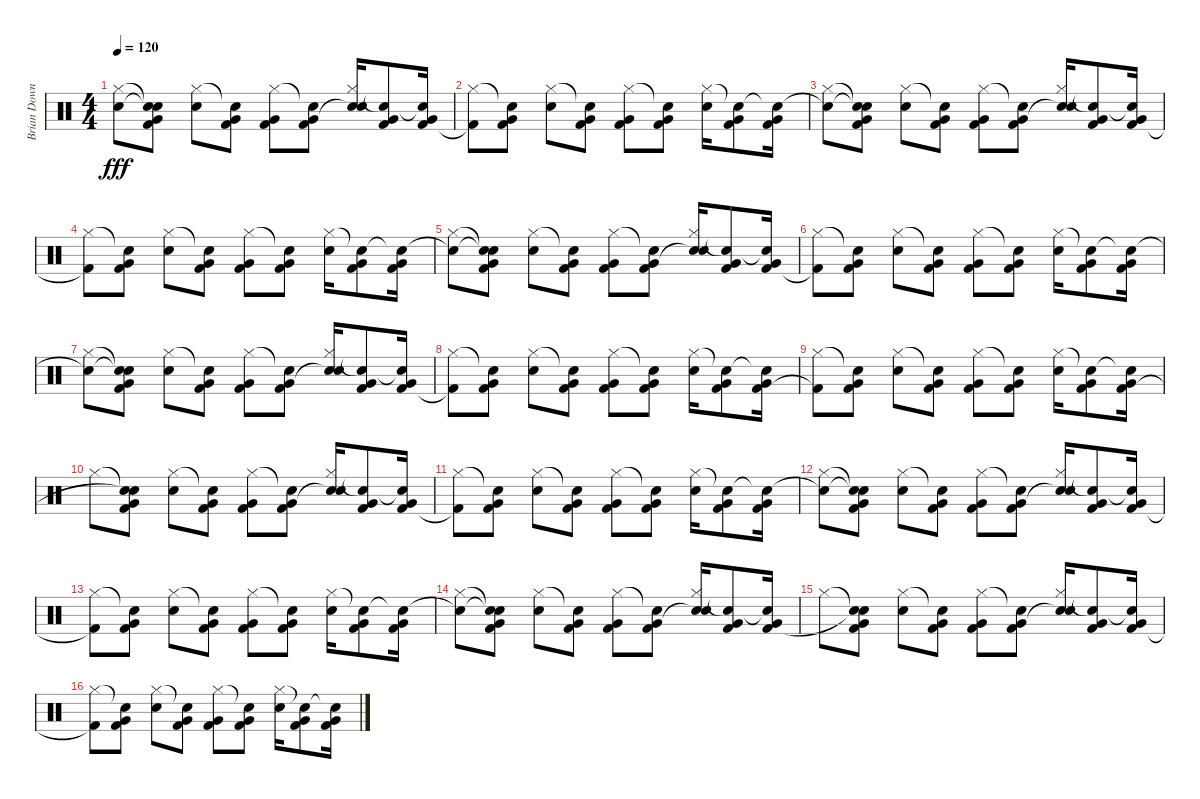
\track ("Brian Downey" "Brian Down") {instrument percussion}
\staff {score}
\articulation defaults
\ts (4 4)
\tempo 120
\clef neutral
\ks c
("Snare (hit)"{t} "Hi-Hat (closed)").8{dy fff} ("Snare (hit)"{t} "Snare (hit)"{t} "Kick (hit) 2" "Very Low Tom (hit)").8 ("Hi-Hat (closed)" "Electric Snare (hit)").8 ("Snare (hit)"{t} "Kick (hit) 2" "Very Low Tom (hit)").8 ("Hi-Hat (closed)" "Kick (hit) 2" "Very Low Tom (hit)").8 ("Snare (hit)"{t} "Kick (hit) 2" "Very Low Tom (hit)").8 ("Hi-Hat (closed)" "Electric Snare (hit)" "Snare (hit)"{t}).16 ("Snare (hit)"{t} "Kick (hit) 2" "Very Low Tom (hit)").8 ("Snare (hit)"{t} "Kick (hit) 2" "Very Low Tom (hit)").16 |
("Hi-Hat (closed)" "Kick (hit) 2"{t}).8 ("Snare (hit)"{t} "Kick (hit) 2" "Very Low Tom (hit)").8 ("Hi-Hat (closed)" "Electric Snare (hit)").8 ("Snare (hit)"{t} "Kick (hit) 2" "Very Low Tom (hit)").8 ("Hi-Hat (closed)" "Kick (hit) 2" "Very Low Tom (hit)").8 ("Snare (hit)"{t} "Kick (hit) 2" "Very Low Tom (hit)").8 ("Hi-Hat (closed)" "Electric Snare (hit)").16 ("Snare (hit)"{t} "Kick (hit) 2" "Very Low Tom (hit)").8 ("Snare (hit)"{t} "Kick (hit) 2" "Very Low Tom (hit)").16 |
("Snare (hit)"{t} "Hi-Hat (closed)").8 ("Snare (hit)"{t} "Snare (hit)"{t} "Kick (hit) 2" "Very Low Tom (hit)").8 ("Hi-Hat (closed)" "Electric Snare (hit)").8 ("Snare (hit)"{t} "Kick (hit) 2" "Very Low Tom (hit)").8 ("Hi-Hat (closed)" "Kick (hit) 2" "Very Low Tom (hit)").8 ("Snare (hit)"{t} "Kick (hit) 2" "Very Low Tom (hit)").8 ("Hi-Hat (closed)" "Electric Snare (hit)" "Snare (hit)"{t}).16 ("Snare (hit)"{t} "Kick (hit) 2" "Very Low Tom (hit)").8 ("Snare (hit)"{t} "Kick (hit) 2" "Very Low Tom (hit)").16 |
("Hi-Hat (closed)" "Kick (hit) 2"{t}).8 ("Snare (hit)"{t} "Kick (hit) 2" "Very Low Tom (hit)").8 ("Hi-Hat (closed)" "Electric Snare (hit)").8 ("Snare (hit)"{t} "Kick (hit) 2" "Very Low Tom (hit)").8 ("Hi-Hat (closed)" "Kick (hit) 2" "Very Low Tom (hit)").8 ("Snare (hit)"{t} "Kick (hit) 2" "Very Low Tom (hit)").8 ("Hi-Hat (closed)" "Electric Snare (hit)").16 ("Snare (hit)"{t} "Kick (hit) 2" "Very Low Tom (hit)").8 ("Snare (hit)"{t} "Kick (hit) 2" "Very Low Tom (hit)").16 |
("Snare (hit)"{t} "Hi-Hat (closed)").8 ("Snare (hit)"{t} "Snare (hit)"{t} "Kick (hit) 2" "Very Low Tom (hit)").8 ("Hi-Hat (closed)" "Electric Snare (hit)").8 ("Snare (hit)"{t} "Kick (hit) 2" "Very Low Tom (hit)").8 ("Hi-Hat (closed)" "Kick (hit) 2" "Very Low Tom (hit)").8 ("Snare (hit)"{t} "Kick (hit) 2" "Very Low Tom (hit)").8 ("Hi-Hat (closed)" "Electric Snare (hit)" "Snare (hit)"{t}).16 ("Snare (hit)"{t} "Kick (hit) 2" "Very Low Tom (hit)").8 ("Snare (hit)"{t} "Kick (hit) 2" "Very Low Tom (hit)").16 |
("Hi-Hat (closed)" "Kick (hit) 2"{t}).8 ("Snare (hit)"{t} "Kick (hit) 2" "Very Low Tom (hit)").8 ("Hi-Hat (closed)" "Electric Snare (hit)").8 ("Snare (hit)"{t} "Kick (hit) 2" "Very Low Tom (hit)").8 ("Hi-Hat (closed)" "Kick (hit) 2" "Very Low Tom (hit)").8 ("Snare (hit)"{t} "Kick (hit) 2" "Very Low Tom (hit)").8 ("Hi-Hat (closed)" "Electric Snare (hit)").16 ("Snare (hit)"{t} "Kick (hit) 2" "Very Low Tom (hit)").8 ("Snare (hit)"{t} "Kick (hit) 2" "Very Low Tom (hit)").16 |
("Snare (hit)"{t} "Hi-Hat (closed)").8 ("Snare (hit)"{t} "Snare (hit)"{t} "Kick (hit) 2" "Very Low Tom (hit)").8 ("Hi-Hat (closed)" "Electric Snare (hit)").8 ("Snare (hit)"{t} "Kick (hit) 2" "Very Low Tom (hit)").8 ("Hi-Hat (closed)" "Kick (hit) 2" "Very Low Tom (hit)").8 ("Snare (hit)"{t} "Kick (hit) 2" "Very Low Tom (hit)").8 ("Hi-Hat (closed)" "Electric Snare (hit)" "Snare (hit)"{t}).16 ("Snare (hit)"{t} "Kick (hit) 2" "Very Low Tom (hit)").8 ("Snare (hit)"{t} "Kick (hit) 2" "Very Low Tom (hit)").16 |
("Hi-Hat (closed)" "Kick (hit) 2"{t}).8 ("Snare (hit)"{t} "Kick (hit) 2" "Very Low Tom (hit)").8 ("Hi-Hat (closed)" "Electric Snare (hit)").8 ("Snare (hit)"{t} "Kick (hit) 2" "Very Low Tom (hit)").8 ("Hi-Hat (closed)" "Kick (hit) 2" "Very Low Tom (hit)").8 ("Snare (hit)"{t} "Kick (hit) 2" "Very Low Tom (hit)").8 ("Hi-Hat (closed)" "Electric Snare (hit)").16 ("Snare (hit)"{t} "Kick (hit) 2" "Very Low Tom (hit)").8 ("Snare (hit)"{t} "Kick (hit) 2" "Very Low Tom (hit)").16 |
("Hi-Hat (closed)" "Kick (hit) 2"{t}).8 ("Snare (hit)"{t} "Kick (hit) 2" "Very Low Tom (hit)").8 ("Hi-Hat (closed)" "Electric Snare (hit)").8 ("Snare (hit)"{t} "Kick (hit) 2" "Very Low Tom (hit)").8 ("Hi-Hat (closed)" "Kick (hit) 2" "Very Low Tom (hit)").8 ("Snare (hit)"{t} "Kick (hit) 2" "Very Low Tom (hit)").8 ("Hi-Hat (closed)" "Electric Snare (hit)").16 ("Snare (hit)"{t} "Kick (hit) 2" "Very Low Tom (hit)").8 ("Snare (hit)"{t} "Kick (hit) 2" "Very Low Tom (hit)").16 |
"Hi-Hat (closed)".8 ("Snare (hit)"{t} "Snare (hit)"{t} "Kick (hit) 2" "Very Low Tom (hit)").8 ("Hi-Hat (closed)" "Electric Snare (hit)").8 ("Snare (hit)"{t} "Kick (hit) 2" "Very Low Tom (hit)").8 ("Hi-Hat (closed)" "Kick (hit) 2" "Very Low Tom (hit)").8 ("Snare (hit)"{t} "Kick (hit) 2" "Very Low Tom (hit)").8 ("Hi-Hat (closed)" "Electric Snare (hit)" "Snare (hit)"{t}).16 ("Snare (hit)"{t} "Kick (hit) 2" "Very Low Tom (hit)").8 ("Snare (hit)"{t} "Kick (hit) 2" "Very Low Tom (hit)").16 |
("Hi-Hat (closed)" "Kick (hit) 2"{t}).8 ("Snare (hit)"{t} "Kick (hit) 2" "Very Low Tom (hit)").8 ("Hi-Hat (closed)" "Electric Snare (hit)").8 ("Snare (hit)"{t} "Kick (hit) 2" "Very Low Tom (hit)").8 ("Hi-Hat (closed)" "Kick (hit) 2" "Very Low Tom (hit)").8 ("Snare (hit)"{t} "Kick (hit) 2" "Very Low Tom (hit)").8 ("Hi-Hat (closed)" "Electric Snare (hit)").16 ("Snare (hit)"{t} "Kick (hit) 2" "Very Low Tom (hit)").8 ("Snare (hit)"{t} "Kick (hit) 2" "Very Low Tom (hit)").16 |
("Snare (hit)"{t} "Hi-Hat (closed)").8 ("Snare (hit)"{t} "Snare (hit)"{t} "Kick (hit) 2" "Very Low Tom (hit)").8 ("Hi-Hat (closed)" "Electric Snare (hit)").8 ("Snare (hit)"{t} "Kick (hit) 2" "Very Low Tom (hit)").8 ("Hi-Hat (closed)" "Kick (hit) 2" "Very Low Tom (hit)").8 ("Snare (hit)"{t} "Kick (hit) 2" "Very Low Tom (hit)").8 ("Hi-Hat (closed)" "Electric Snare (hit)" "Snare (hit)"{t}).16 ("Snare (hit)"{t} "Kick (hit) 2" "Very Low Tom (hit)").8 ("Snare (hit)"{t} "Kick (hit) 2" "Very Low Tom (hit)").16 |
("Hi-Hat (closed)" "Kick (hit) 2"{t}).8 ("Snare (hit)"{t} "Kick (hit) 2" "Very Low Tom (hit)").8 ("Hi-Hat (closed)" "Electric Snare (hit)").8 ("Snare (hit)"{t} "Kick (hit) 2" "Very Low Tom (hit)").8 ("Hi-Hat (closed)" "Kick (hit) 2" "Very Low Tom (hit)").8 ("Snare (hit)"{t} "Kick (hit) 2" "Very Low Tom (hit)").8 ("Hi-Hat (closed)" "Electric Snare (hit)").16 ("Snare (hit)"{t} "Kick (hit) 2" "Very Low Tom (hit)").8 ("Snare (hit)"{t} "Kick (hit) 2" "Very Low Tom (hit)").16 |
("Snare (hit)"{t} "Hi-Hat (closed)").8 ("Snare (hit)"{t} "Snare (hit)"{t} "Kick (hit) 2" "Very Low Tom (hit)").8 ("Hi-Hat (closed)" "Electric Snare (hit)").8 ("Snare (hit)"{t} "Kick (hit) 2" "Very Low Tom (hit)").8 ("Hi-Hat (closed)" "Kick (hit) 2" "Very Low Tom (hit)").8 ("Snare (hit)"{t} "Kick (hit) 2" "Very Low Tom (hit)").8 ("Hi-Hat (closed)" "Electric Snare (hit)" "Snare (hit)"{t}).16 ("Snare (hit)"{t} "Kick (hit) 2" "Very Low Tom (hit)").8 ("Snare (hit)"{t} "Kick (hit) 2" "Very Low Tom (hit)").16 |
"Hi-Hat (closed)".8 ("Snare (hit)"{t} "Snare (hit)"{t} "Kick (hit) 2" "Very Low Tom (hit)").8 ("Hi-Hat (closed)" "Electric Snare (hit)").8 ("Snare (hit)"{t} "Kick (hit) 2" "Very Low Tom (hit)").8 ("Hi-Hat (closed)" "Kick (hit) 2" "Very Low Tom (hit)").8 ("Snare (hit)"{t} "Kick (hit) 2" "Very Low Tom (hit)").8 ("Hi-Hat (closed)" "Electric Snare (hit)" "Snare (hit)"{t}).16 ("Snare (hit)"{t} "Kick (hit) 2" "Very Low Tom (hit)").8 ("Snare (hit)"{t} "Kick (hit) 2" "Very Low Tom (hit)").16 |
("Hi-Hat (closed)" "Kick (hit) 2"{t}).8 ("Snare (hit)"{t} "Kick (hit) 2" "Very Low Tom (hit)").8 ("Hi-Hat (closed)" "Electric Snare (hit)").8 ("Snare (hit)"{t} "Kick (hit) 2" "Very Low Tom (hit)").8 ("Hi-Hat (closed)" "Kick (hit) 2" "Very Low Tom (hit)").8 ("Snare (hit)"{t} "Kick (hit) 2" "Very Low Tom (hit)").8 ("Hi-Hat (closed)" "Electric Snare (hit)").16 ("Snare (hit)"{t} "Kick (hit) 2" "Very Low Tom (hit)").8 ("Snare (hit)"{t} "Kick (hit) 2" "Very Low Tom (hit)").16
